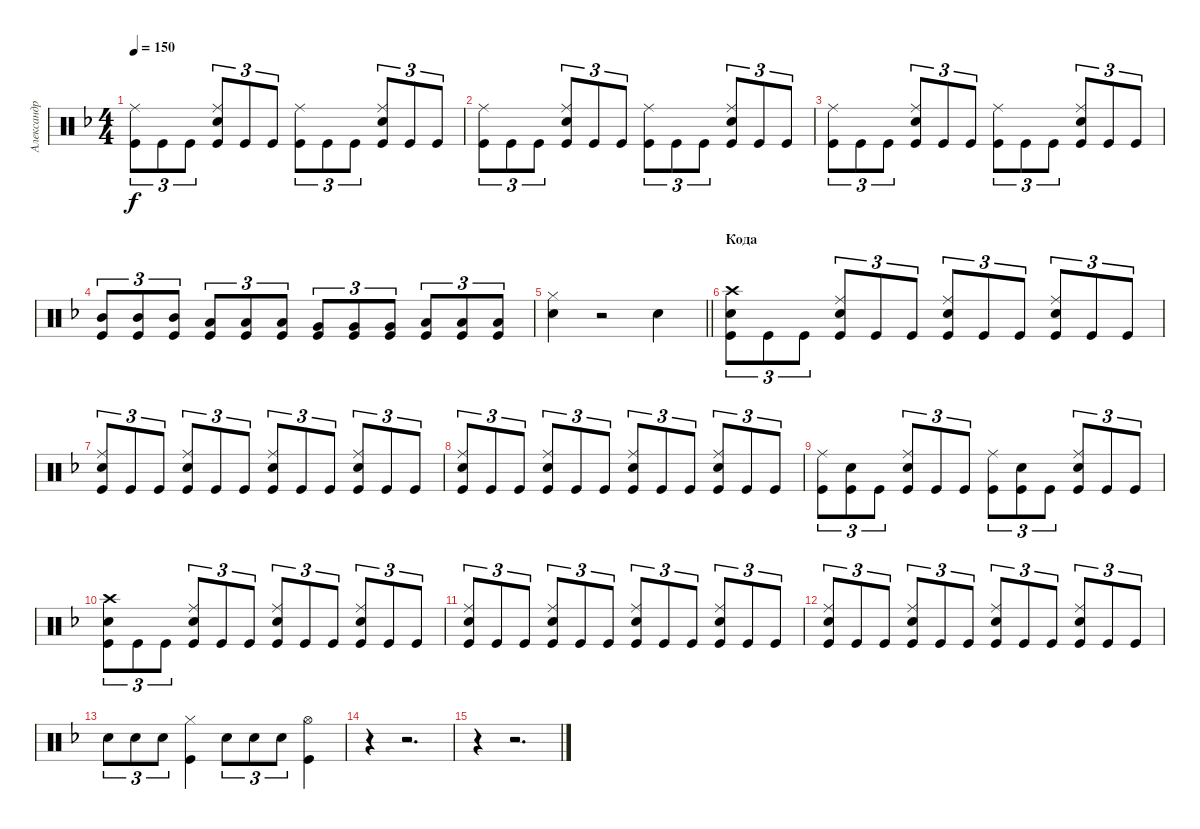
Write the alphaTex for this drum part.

\track ("Александр Манякин" "Александр ") {instrument percussion}
\staff {score}
\articulation defaults
\ts (4 4)
\tempo 150
\clef neutral
\ks dminor
("Kick (hit)" "Ride (middle)").8{tu (3 2) dy f} "Kick (hit)".8{tu (3 2)} "Kick (hit)".8{tu (3 2)} ("Snare (hit) 2" "Kick (hit)" "Ride (middle)").8{tu (3 2)} "Kick (hit)".8{tu (3 2)} "Kick (hit)".8{tu (3 2)} ("Kick (hit)" "Ride (middle)").8{tu (3 2)} "Kick (hit)".8{tu (3 2)} "Kick (hit)".8{tu (3 2)} ("Kick (hit)" "Snare (hit) 2" "Ride (middle)").8{tu (3 2)} "Kick (hit)".8{tu (3 2)} "Kick (hit)".8{tu (3 2)} |
("Kick (hit)" "Ride (middle)").8{tu (3 2)} "Kick (hit)".8{tu (3 2)} "Kick (hit)".8{tu (3 2)} ("Snare (hit) 2" "Kick (hit)" "Ride (middle)").8{tu (3 2)} "Kick (hit)".8{tu (3 2)} "Kick (hit)".8{tu (3 2)} ("Kick (hit)" "Ride (middle)").8{tu (3 2)} "Kick (hit)".8{tu (3 2)} "Kick (hit)".8{tu (3 2)} ("Kick (hit)" "Snare (hit) 2" "Ride (middle)").8{tu (3 2)} "Kick (hit)".8{tu (3 2)} "Kick (hit)".8{tu (3 2)} |
("Kick (hit)" "Ride (middle)").8{tu (3 2)} "Kick (hit)".8{tu (3 2)} "Kick (hit)".8{tu (3 2)} ("Snare (hit) 2" "Kick (hit)" "Ride (middle)").8{tu (3 2)} "Kick (hit)".8{tu (3 2)} "Kick (hit)".8{tu (3 2)} ("Kick (hit)" "Ride (middle)").8{tu (3 2)} "Kick (hit)".8{tu (3 2)} "Kick (hit)".8{tu (3 2)} ("Kick (hit)" "Snare (hit) 2" "Ride (middle)").8{tu (3 2)} "Kick (hit)".8{tu (3 2)} "Kick (hit)".8{tu (3 2)} |
("Mid Tom (hit)" "Kick (hit)").8{tu (3 2)} ("Mid Tom (hit)" "Kick (hit)").8{tu (3 2)} ("Mid Tom (hit)" "Kick (hit)").8{tu (3 2)} ("Low Tom (hit)" "Kick (hit)").8{tu (3 2)} ("Low Tom (hit)" "Kick (hit)").8{tu (3 2)} ("Low Tom (hit)" "Kick (hit)").8{tu (3 2)} ("Very Low Tom (hit)" "Kick (hit)").8{tu (3 2)} ("Kick (hit)" "Very Low Tom (hit)").8{tu (3 2)} ("Very Low Tom (hit)" "Kick (hit)").8{tu (3 2)} ("Low Floor Tom (hit)" "Kick (hit)").8{tu (3 2)} ("Low Floor Tom (hit)" "Kick (hit)").8{tu (3 2)} ("Low Floor Tom (hit)" "Kick (hit)").8{tu (3 2)} |
\barLineRight lightlight
("Snare (hit) 2" "Hi-Hat (closed)").4 r.2 "Snare (hit) 2".4 |
\section ("" "Кода")
("Kick (hit)" "Snare (hit) 2" "Crash high (hit)").8{tu (3 2)} "Kick (hit)".8{tu (3 2)} "Kick (hit)".8{tu (3 2)} ("Snare (hit) 2" "Kick (hit)" "Ride (middle)").8{tu (3 2)} "Kick (hit)".8{tu (3 2)} "Kick (hit)".8{tu (3 2)} ("Kick (hit)" "Ride (middle)" "Snare (hit) 2").8{tu (3 2)} "Kick (hit)".8{tu (3 2)} "Kick (hit)".8{tu (3 2)} ("Kick (hit)" "Snare (hit) 2" "Ride (middle)").8{tu (3 2)} "Kick (hit)".8{tu (3 2)} "Kick (hit)".8{tu (3 2)} |
("Kick (hit)" "Ride (middle)" "Snare (hit) 2").8{tu (3 2)} "Kick (hit)".8{tu (3 2)} "Kick (hit)".8{tu (3 2)} ("Snare (hit) 2" "Kick (hit)" "Ride (middle)").8{tu (3 2)} "Kick (hit)".8{tu (3 2)} "Kick (hit)".8{tu (3 2)} ("Kick (hit)" "Ride (middle)" "Snare (hit) 2").8{tu (3 2)} "Kick (hit)".8{tu (3 2)} "Kick (hit)".8{tu (3 2)} ("Kick (hit)" "Snare (hit) 2" "Ride (middle)").8{tu (3 2)} "Kick (hit)".8{tu (3 2)} "Kick (hit)".8{tu (3 2)} |
("Kick (hit)" "Ride (middle)" "Snare (hit) 2").8{tu (3 2)} "Kick (hit)".8{tu (3 2)} "Kick (hit)".8{tu (3 2)} ("Snare (hit) 2" "Kick (hit)" "Ride (middle)").8{tu (3 2)} "Kick (hit)".8{tu (3 2)} "Kick (hit)".8{tu (3 2)} ("Kick (hit)" "Ride (middle)" "Snare (hit) 2").8{tu (3 2)} "Kick (hit)".8{tu (3 2)} "Kick (hit)".8{tu (3 2)} ("Kick (hit)" "Snare (hit) 2" "Ride (middle)").8{tu (3 2)} "Kick (hit)".8{tu (3 2)} "Kick (hit)".8{tu (3 2)} |
("Kick (hit)" "Ride (middle)").8{tu (3 2)} ("Kick (hit)" "Snare (hit) 2").8{tu (3 2)} "Kick (hit)".8{tu (3 2)} ("Snare (hit) 2" "Kick (hit)" "Ride (middle)").8{tu (3 2)} "Kick (hit)".8{tu (3 2)} "Kick (hit)".8{tu (3 2)} ("Kick (hit)" "Ride (middle)").8{tu (3 2)} ("Kick (hit)" "Snare (hit) 2").8{tu (3 2)} "Kick (hit)".8{tu (3 2)} ("Kick (hit)" "Snare (hit) 2" "Ride (middle)").8{tu (3 2)} "Kick (hit)".8{tu (3 2)} "Kick (hit)".8{tu (3 2)} |
("Kick (hit)" "Snare (hit) 2" "Crash high (hit)").8{tu (3 2)} "Kick (hit)".8{tu (3 2)} "Kick (hit)".8{tu (3 2)} ("Snare (hit) 2" "Kick (hit)" "Ride (middle)").8{tu (3 2)} "Kick (hit)".8{tu (3 2)} "Kick (hit)".8{tu (3 2)} ("Kick (hit)" "Ride (middle)" "Snare (hit) 2").8{tu (3 2)} "Kick (hit)".8{tu (3 2)} "Kick (hit)".8{tu (3 2)} ("Kick (hit)" "Snare (hit) 2" "Ride (middle)").8{tu (3 2)} "Kick (hit)".8{tu (3 2)} "Kick (hit)".8{tu (3 2)} |
("Kick (hit)" "Ride (middle)" "Snare (hit) 2").8{tu (3 2)} "Kick (hit)".8{tu (3 2)} "Kick (hit)".8{tu (3 2)} ("Snare (hit) 2" "Kick (hit)" "Ride (middle)").8{tu (3 2)} "Kick (hit)".8{tu (3 2)} "Kick (hit)".8{tu (3 2)} ("Kick (hit)" "Ride (middle)" "Snare (hit) 2").8{tu (3 2)} "Kick (hit)".8{tu (3 2)} "Kick (hit)".8{tu (3 2)} ("Kick (hit)" "Snare (hit) 2" "Ride (middle)").8{tu (3 2)} "Kick (hit)".8{tu (3 2)} "Kick (hit)".8{tu (3 2)} |
("Kick (hit)" "Ride (middle)" "Snare (hit) 2").8{tu (3 2)} "Kick (hit)".8{tu (3 2)} "Kick (hit)".8{tu (3 2)} ("Snare (hit) 2" "Kick (hit)" "Ride (middle)").8{tu (3 2)} "Kick (hit)".8{tu (3 2)} "Kick (hit)".8{tu (3 2)} ("Kick (hit)" "Ride (middle)" "Snare (hit) 2").8{tu (3 2)} "Kick (hit)".8{tu (3 2)} "Kick (hit)".8{tu (3 2)} ("Kick (hit)" "Snare (hit) 2" "Ride (middle)").8{tu (3 2)} "Kick (hit)".8{tu (3 2)} "Kick (hit)".8{tu (3 2)} |
"Snare (hit) 2".8{tu (3 2)} "Snare (hit) 2".8{tu (3 2)} "Snare (hit) 2".8{tu (3 2)} ("Kick (hit)" "Hi-Hat (closed)").4 "Snare (hit) 2".8{tu (3 2)} "Snare (hit) 2".8{tu (3 2)} "Snare (hit) 2".8{tu (3 2)} ("Kick (hit)" "Hi-Hat (open)").4 |
r.4 r.2{d} |
r.4 r.2{d}
